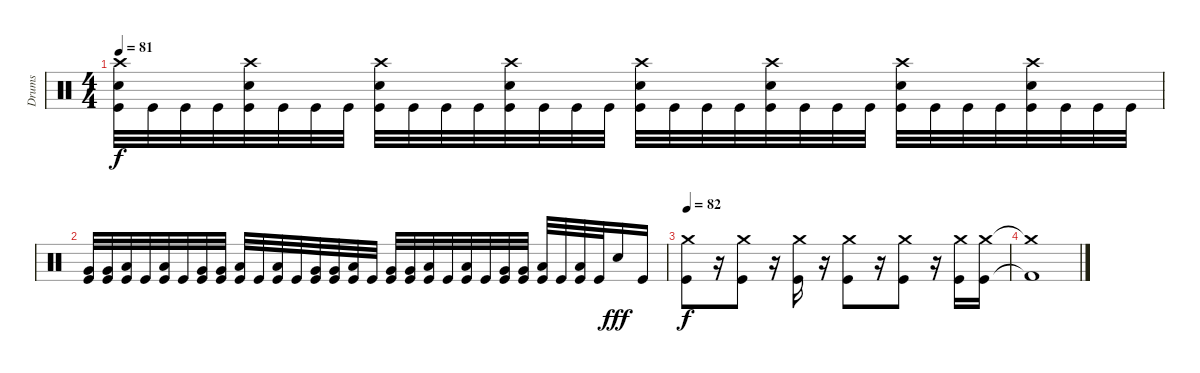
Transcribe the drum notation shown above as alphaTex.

\track ("Drums" "Drums") {instrument percussion}
\staff {score}
\articulation defaults
\ts (4 4)
\tempo 81
\clef neutral
\ks c
("Crash high (hit)" "Snare (hit) 2" "Kick (hit)").32{dy f} "Kick (hit)".32 "Kick (hit)".32 "Kick (hit)".32 ("Crash high (hit)" "Snare (hit) 2" "Kick (hit)").32 "Kick (hit)".32 "Kick (hit)".32 "Kick (hit)".32 ("Crash high (hit)" "Snare (hit) 2" "Kick (hit)").32 "Kick (hit)".32 "Kick (hit)".32 "Kick (hit)".32 ("Crash high (hit)" "Snare (hit) 2" "Kick (hit)").32 "Kick (hit)".32 "Kick (hit)".32 "Kick (hit)".32 ("Crash high (hit)" "Snare (hit) 2" "Kick (hit)").32 "Kick (hit)".32 "Kick (hit)".32 "Kick (hit)".32 ("Crash high (hit)" "Snare (hit) 2" "Kick (hit)").32 "Kick (hit)".32 "Kick (hit)".32 "Kick (hit)".32 ("Crash high (hit)" "Snare (hit) 2" "Kick (hit)").32 "Kick (hit)".32 "Kick (hit)".32 "Kick (hit)".32 ("Crash high (hit)" "Snare (hit) 2" "Kick (hit)").32 "Kick (hit)".32 "Kick (hit)".32 "Kick (hit)".32 |
("Very Low Tom (hit)" "Kick (hit)").32 ("Very Low Tom (hit)" "Kick (hit)").32 ("Low Floor Tom (hit)" "Kick (hit)").32 "Kick (hit)".32 ("Low Floor Tom (hit)" "Kick (hit)").32 "Kick (hit)".32 ("Very Low Tom (hit)" "Kick (hit)").32 ("Very Low Tom (hit)" "Kick (hit)").32 ("Low Floor Tom (hit)" "Kick (hit)").32 "Kick (hit)".32 ("Low Floor Tom (hit)" "Kick (hit)").32 "Kick (hit)".32 ("Very Low Tom (hit)" "Kick (hit)").32 ("Very Low Tom (hit)" "Kick (hit)").32 ("Low Floor Tom (hit)" "Kick (hit)").32 "Kick (hit)".32 ("Very Low Tom (hit)" "Kick (hit)").32 ("Very Low Tom (hit)" "Kick (hit)").32 ("Low Floor Tom (hit)" "Kick (hit)").32 "Kick (hit)".32 ("Low Floor Tom (hit)" "Kick (hit)").32 "Kick (hit)".32 ("Very Low Tom (hit)" "Kick (hit)").32 ("Very Low Tom (hit)" "Kick (hit)").32 ("Low Floor Tom (hit)" "Kick (hit)").32 "Kick (hit)".32 ("Low Floor Tom (hit)" "Kick (hit)").32 "Kick (hit)".32 "Snare (hit) 2".16{dy fff} "Kick (hit)".16 |
\tempo 82
("Crash medium (hit)" "Kick (hit)").8{dy f} r.16 ("Crash medium (hit)" "Kick (hit)").8 r.16 ("Crash medium (hit)" "Kick (hit)").16 r.16 ("Crash medium (hit)" "Kick (hit)").8 r.16 ("Crash medium (hit)" "Kick (hit)").8 r.16 ("Crash medium (hit)" "Kick (hit)").16 ("Crash medium (hit)" "Kick (hit)").16 |
("Crash medium (hit)"{t} "Kick (hit) 2"{t}).1
